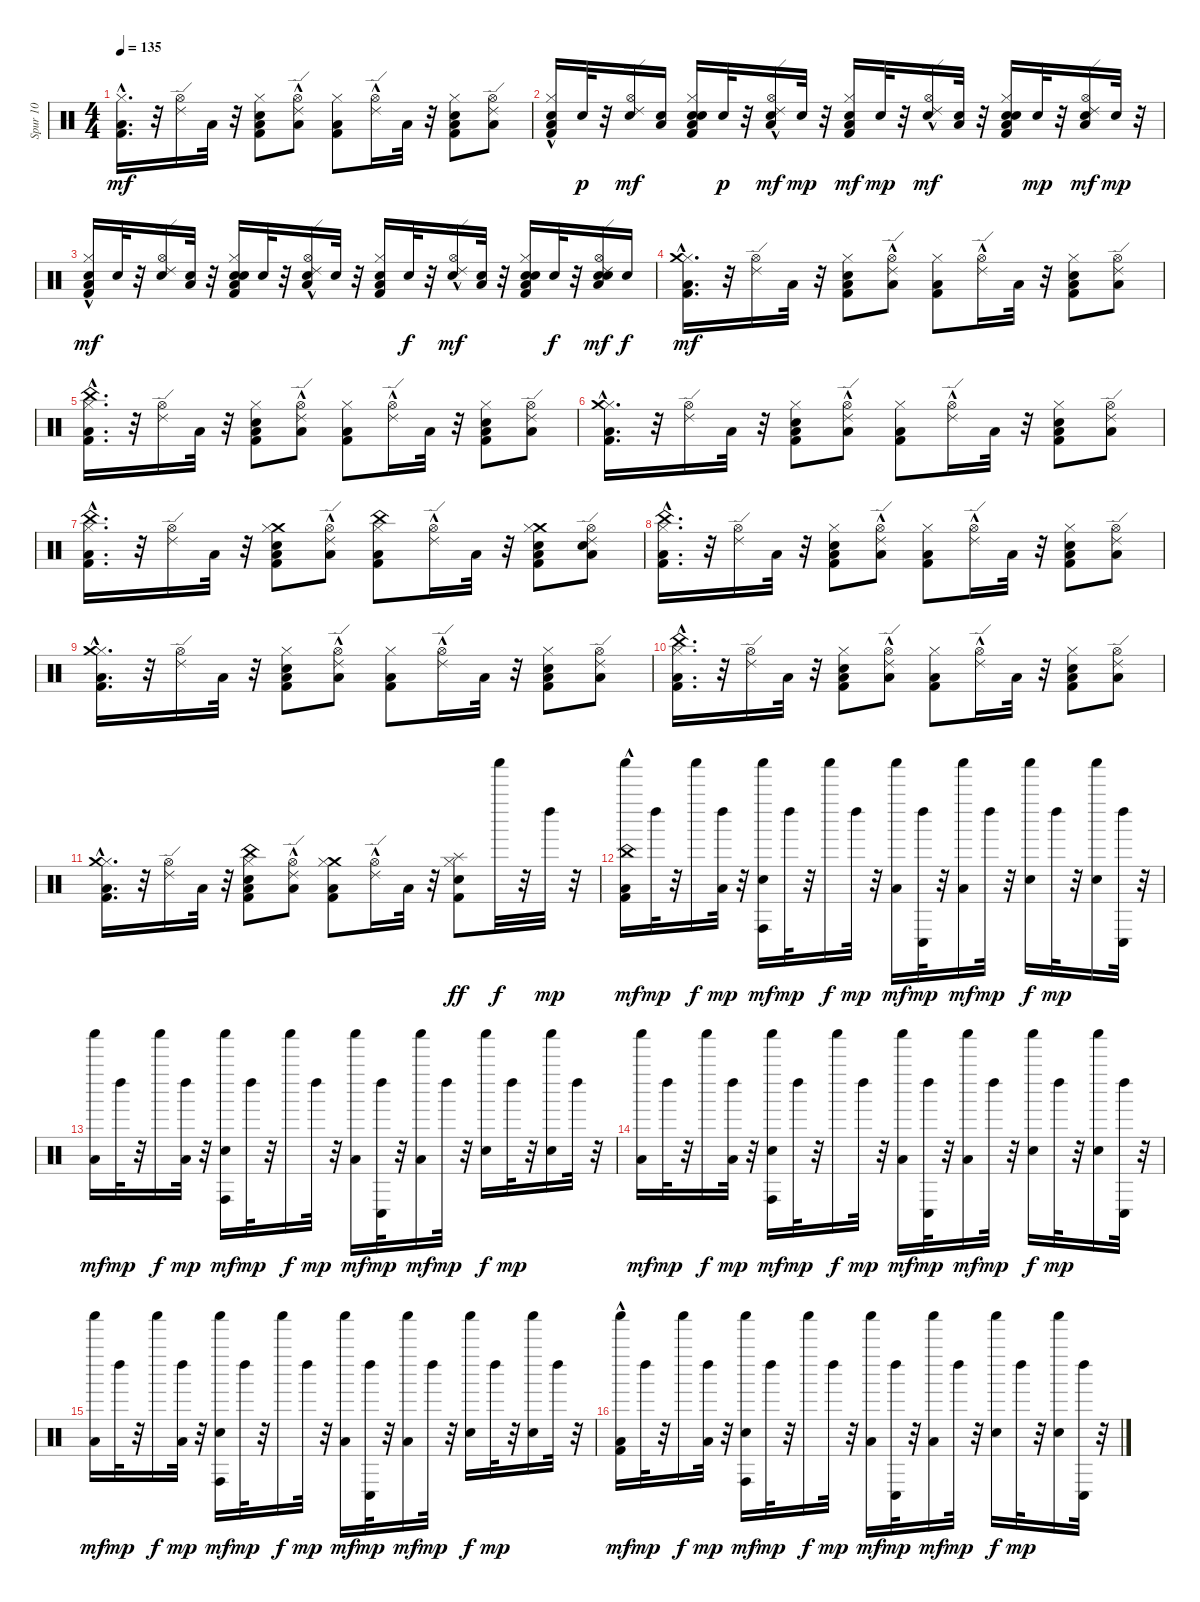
\track ("Spur 10" "Spur 10") {instrument percussion}
\staff {score}
\articulation defaults
\ts (4 4)
\tempo 135
\clef neutral
\ks c
("Kick (hit) 2" "Low Tom (hit)" "Hi-Hat (closed)"{hac}).16{d dy mf} r.32 ("Ride (edge) 2" "Hi-Hat (open)").16 "Low Tom (hit)".32 r.32 ("Kick (hit) 2" "Hand Clap (hit)" "Low Tom (hit)" "Hi-Hat (closed)").8 ("Low Tom (hit)" "Hi-Hat (open)" "Ride (edge) 2"{hac}).8 ("Kick (hit) 2" "Low Tom (hit)" "Hi-Hat (closed)").8 ("Hi-Hat (open)" "Ride (edge) 2"{hac}).16 "Low Tom (hit)".32 r.32 ("Kick (hit) 2" "Hand Clap (hit)" "Low Tom (hit)" "Hi-Hat (closed)").8 ("Low Tom (hit)" "Hi-Hat (open)" "Ride (edge) 2").8 |
("Snare (hit) 2" "Kick (hit) 2" "Low Tom (hit)" "Hi-Hat (closed)"{hac}).16 "Snare (hit) 2".32{dy p} r.32 ("Snare (hit) 2" "Ride (edge) 2" "Hi-Hat (open)").16{dy mf} ("Snare (hit) 2" "Low Tom (hit)").16 ("Snare (hit) 2" "Kick (hit) 2" "Hand Clap (hit)" "Low Tom (hit)" "Hi-Hat (closed)").16 "Snare (hit) 2".32{dy p} r.32 ("Snare (hit) 2" "Low Tom (hit)" "Hi-Hat (open)" "Ride (edge) 2"{hac}).16{dy mf} "Snare (hit) 2".32{dy mp} r.32 ("Snare (hit) 2" "Kick (hit) 2" "Low Tom (hit)" "Hi-Hat (closed)").16{dy mf} "Snare (hit) 2".32{dy mp} r.32 ("Snare (hit) 2" "Hi-Hat (open)" "Ride (edge) 2"{hac}).16{dy mf} ("Snare (hit) 2" "Low Tom (hit)").32 r.32 ("Snare (hit) 2" "Kick (hit) 2" "Hand Clap (hit)" "Low Tom (hit)" "Hi-Hat (closed)").16 "Snare (hit) 2".32{dy mp} r.32 ("Snare (hit) 2" "Low Tom (hit)" "Hi-Hat (open)" "Ride (edge) 2").16{dy mf} "Snare (hit) 2".32{dy mp} r.32 |
("Snare (hit) 2" "Kick (hit) 2" "Low Tom (hit)" "Hi-Hat (closed)"{hac}).16{dy mf} "Snare (hit) 2".32 r.32 ("Snare (hit) 2" "Ride (edge) 2" "Hi-Hat (open)").16 ("Snare (hit) 2" "Low Tom (hit)").32 r.32 ("Snare (hit) 2" "Kick (hit) 2" "Hand Clap (hit)" "Low Tom (hit)" "Hi-Hat (closed)").16 "Snare (hit) 2".32 r.32 ("Snare (hit) 2" "Low Tom (hit)" "Hi-Hat (open)" "Ride (edge) 2"{hac}).16 "Snare (hit) 2".32 r.32 ("Snare (hit) 2" "Kick (hit) 2" "Low Tom (hit)" "Hi-Hat (closed)").16 "Snare (hit) 2".32{dy f} r.32 ("Snare (hit) 2" "Hi-Hat (open)" "Ride (edge) 2"{hac}).16{dy mf} ("Snare (hit) 2" "Low Tom (hit)").32 r.32 ("Snare (hit) 2" "Kick (hit) 2" "Hand Clap (hit)" "Low Tom (hit)" "Hi-Hat (closed)").16 "Snare (hit) 2".32{dy f} r.32 ("Snare (hit) 2" "Hand Clap (hit)" "Low Tom (hit)" "Hi-Hat (open)" "Ride (edge) 2").16{dy mf} "Snare (hit) 2".16{dy f} |
("Kick (hit) 2" "Low Tom (hit)" "Hi-Hat (closed)"{hac} "Crash medium (hit)").16{d dy mf} r.32 ("Ride (edge) 2" "Hi-Hat (open)").16 "Low Tom (hit)".32 r.32 ("Kick (hit) 2" "Hand Clap (hit)" "Low Tom (hit)" "Hi-Hat (closed)").8 ("Low Tom (hit)" "Hi-Hat (open)" "Ride (edge) 2"{hac}).8 ("Kick (hit) 2" "Low Tom (hit)" "Hi-Hat (closed)").8 ("Hi-Hat (open)" "Ride (edge) 2"{hac}).16 "Low Tom (hit)".32 r.32 ("Kick (hit) 2" "Hand Clap (hit)" "Low Tom (hit)" "Hi-Hat (closed)").8 ("Low Tom (hit)" "Hi-Hat (open)" "Ride (edge) 2").8 |
("Kick (hit) 2" "Low Tom (hit)" "Hi-Hat (closed)"{hac} "China (hit)").16{d} r.32 ("Ride (edge) 2" "Hi-Hat (open)").16 "Low Tom (hit)".32 r.32 ("Kick (hit) 2" "Hand Clap (hit)" "Low Tom (hit)" "Hi-Hat (closed)").8 ("Low Tom (hit)" "Hi-Hat (open)" "Ride (edge) 2"{hac}).8 ("Kick (hit) 2" "Low Tom (hit)" "Hi-Hat (closed)").8 ("Hi-Hat (open)" "Ride (edge) 2"{hac}).16 "Low Tom (hit)".32 r.32 ("Kick (hit) 2" "Hand Clap (hit)" "Low Tom (hit)" "Hi-Hat (closed)").8 ("Low Tom (hit)" "Hi-Hat (open)" "Ride (edge) 2").8 |
("Kick (hit) 2" "Low Tom (hit)" "Hi-Hat (closed)"{hac} "Crash medium (hit)").16{d} r.32 ("Ride (edge) 2" "Hi-Hat (open)").16 "Low Tom (hit)".32 r.32 ("Kick (hit) 2" "Hand Clap (hit)" "Low Tom (hit)" "Hi-Hat (closed)").8 ("Low Tom (hit)" "Hi-Hat (open)" "Ride (edge) 2"{hac}).8 ("Kick (hit) 2" "Low Tom (hit)" "Hi-Hat (closed)").8 ("Hi-Hat (open)" "Ride (edge) 2"{hac}).16 "Low Tom (hit)".32 r.32 ("Kick (hit) 2" "Hand Clap (hit)" "Low Tom (hit)" "Hi-Hat (closed)").8 ("Low Tom (hit)" "Hi-Hat (open)" "Ride (edge) 2").8 |
("Kick (hit) 2" "Low Tom (hit)" "Hi-Hat (closed)"{hac} "China (hit)").16{d} r.32 ("Ride (edge) 2" "Hi-Hat (open)").16 "Low Tom (hit)".32 r.32 ("Kick (hit) 2" "Hand Clap (hit)" "Low Tom (hit)" "Crash medium (hit)" "Hi-Hat (closed)").8 ("Low Tom (hit)" "Hi-Hat (open)" "Ride (edge) 2"{hac}).8 ("Kick (hit) 2" "Low Tom (hit)" "China (hit)" "Hi-Hat (closed)").8 ("Hi-Hat (open)" "Ride (edge) 2"{hac}).16 "Low Tom (hit)".32 r.32 ("Kick (hit) 2" "Hand Clap (hit)" "Low Tom (hit)" "Crash medium (hit)" "Hi-Hat (closed)").8 ("Hand Clap (hit)" "Low Tom (hit)" "Hi-Hat (open)" "Ride (edge) 2").8 |
("Kick (hit) 2" "Low Tom (hit)" "Hi-Hat (closed)"{hac} "China (hit)").16{d} r.32 ("Ride (edge) 2" "Hi-Hat (open)").16 "Low Tom (hit)".32 r.32 ("Kick (hit) 2" "Hand Clap (hit)" "Low Tom (hit)" "Hi-Hat (closed)").8 ("Low Tom (hit)" "Hi-Hat (open)" "Ride (edge) 2"{hac}).8 ("Kick (hit) 2" "Low Tom (hit)" "Hi-Hat (closed)").8 ("Hi-Hat (open)" "Ride (edge) 2"{hac}).16 "Low Tom (hit)".32 r.32 ("Kick (hit) 2" "Hand Clap (hit)" "Low Tom (hit)" "Hi-Hat (closed)").8 ("Low Tom (hit)" "Hi-Hat (open)" "Ride (edge) 2").8 |
("Kick (hit) 2" "Low Tom (hit)" "Hi-Hat (closed)"{hac} "Crash medium (hit)").16{d} r.32 ("Ride (edge) 2" "Hi-Hat (open)").16 "Low Tom (hit)".32 r.32 ("Kick (hit) 2" "Hand Clap (hit)" "Low Tom (hit)" "Hi-Hat (closed)").8 ("Low Tom (hit)" "Hi-Hat (open)" "Ride (edge) 2"{hac}).8 ("Kick (hit) 2" "Low Tom (hit)" "Hi-Hat (closed)").8 ("Hi-Hat (open)" "Ride (edge) 2"{hac}).16 "Low Tom (hit)".32 r.32 ("Kick (hit) 2" "Hand Clap (hit)" "Low Tom (hit)" "Hi-Hat (closed)").8 ("Low Tom (hit)" "Hi-Hat (open)" "Ride (edge) 2").8 |
("Kick (hit) 2" "Low Tom (hit)" "Hi-Hat (closed)"{hac} "China (hit)").16{d} r.32 ("Ride (edge) 2" "Hi-Hat (open)").16 "Low Tom (hit)".32 r.32 ("Kick (hit) 2" "Hand Clap (hit)" "Low Tom (hit)" "Hi-Hat (closed)").8 ("Low Tom (hit)" "Hi-Hat (open)" "Ride (edge) 2"{hac}).8 ("Kick (hit) 2" "Low Tom (hit)" "Hi-Hat (closed)").8 ("Hi-Hat (open)" "Ride (edge) 2"{hac}).16 "Low Tom (hit)".32 r.32 ("Kick (hit) 2" "Hand Clap (hit)" "Low Tom (hit)" "Hi-Hat (closed)").8 ("Low Tom (hit)" "Hi-Hat (open)" "Ride (edge) 2").8 |
("Kick (hit) 2" "Low Tom (hit)" "Hi-Hat (closed)"{hac} "Crash medium (hit)").16{d} r.32 ("Ride (edge) 2" "Hi-Hat (open)").16 "Low Tom (hit)".32 r.32 ("Kick (hit) 2" "Hand Clap (hit)" "Low Tom (hit)" "China (hit)" "Hi-Hat (closed)").8 ("Low Tom (hit)" "Hi-Hat (open)" "Ride (edge) 2"{hac}).8 ("Kick (hit) 2" "Low Tom (hit)" "Crash medium (hit)" "Hi-Hat (closed)").8 ("Hi-Hat (open)" "Ride (edge) 2"{hac}).16 "Low Tom (hit)".32 r.32 ("Kick (hit) 2" "Hand Clap (hit)" "Splash (hit)" "Hi-Hat (closed)").8{dy ff} "Shaker (hit)".32{dy f} r.32 "Left Maraca (hit)".32{dy mp} r.32 |
("Kick (hit) 2"{hac} "Low Tom (hit)" "China (hit)" "Shaker (hit)").16{dy mf} "Left Maraca (hit)".32{dy mp} r.32 "Shaker (hit)".16{dy f} ("Low Tom (hit)" "Left Maraca (hit)").32{dy mp} r.32 ("Conga high (hit)" "Hand Clap (hit)" "Shaker (hit)").16{dy mf} "Left Maraca (hit)".32{dy mp} r.32 "Shaker (hit)".16{dy f} "Left Maraca (hit)".32{dy mp} r.32 ("Low Tom (hit)" "Shaker (hit)").16{dy mf} ("Conga low (hit)" "Left Maraca (hit)").32{dy mp} r.32 ("Low Tom (hit)" "Shaker (hit)").16{dy mf} "Left Maraca (hit)".32{dy mp} r.32 ("Hand Clap (hit)" "Shaker (hit)").16{dy f} "Left Maraca (hit)".32{dy mp} r.32 ("Hand Clap (hit)" "Shaker (hit)").16 ("Conga low (hit)" "Left Maraca (hit)").32 r.32 |
("Low Tom (hit)" "Shaker (hit)").16{dy mf} "Left Maraca (hit)".32{dy mp} r.32 "Shaker (hit)".16{dy f} ("Low Tom (hit)" "Left Maraca (hit)").32{dy mp} r.32 ("Conga high (hit)" "Hand Clap (hit)" "Shaker (hit)").16{dy mf} "Left Maraca (hit)".32{dy mp} r.32 "Shaker (hit)".16{dy f} "Left Maraca (hit)".32{dy mp} r.32 ("Low Tom (hit)" "Shaker (hit)").16{dy mf} ("Conga low (hit)" "Left Maraca (hit)").32{dy mp} r.32 ("Low Tom (hit)" "Shaker (hit)").16{dy mf} "Left Maraca (hit)".32{dy mp} r.32 ("Hand Clap (hit)" "Shaker (hit)").16{dy f} "Left Maraca (hit)".32{dy mp} r.32 ("Hand Clap (hit)" "Shaker (hit)").16 "Left Maraca (hit)".32 r.32 |
("Low Tom (hit)" "Shaker (hit)").16{dy mf} "Left Maraca (hit)".32{dy mp} r.32 "Shaker (hit)".16{dy f} ("Low Tom (hit)" "Left Maraca (hit)").32{dy mp} r.32 ("Conga high (hit)" "Hand Clap (hit)" "Shaker (hit)").16{dy mf} "Left Maraca (hit)".32{dy mp} r.32 "Shaker (hit)".16{dy f} "Left Maraca (hit)".32{dy mp} r.32 ("Low Tom (hit)" "Shaker (hit)").16{dy mf} ("Conga low (hit)" "Left Maraca (hit)").32{dy mp} r.32 ("Low Tom (hit)" "Shaker (hit)").16{dy mf} "Left Maraca (hit)".32{dy mp} r.32 ("Hand Clap (hit)" "Shaker (hit)").16{dy f} "Left Maraca (hit)".32{dy mp} r.32 ("Hand Clap (hit)" "Shaker (hit)").16 ("Conga low (hit)" "Left Maraca (hit)").32 r.32 |
("Low Tom (hit)" "Shaker (hit)").16{dy mf} "Left Maraca (hit)".32{dy mp} r.32 "Shaker (hit)".16{dy f} ("Low Tom (hit)" "Left Maraca (hit)").32{dy mp} r.32 ("Conga high (hit)" "Hand Clap (hit)" "Shaker (hit)").16{dy mf} "Left Maraca (hit)".32{dy mp} r.32 "Shaker (hit)".16{dy f} "Left Maraca (hit)".32{dy mp} r.32 ("Low Tom (hit)" "Shaker (hit)").16{dy mf} ("Conga low (hit)" "Left Maraca (hit)").32{dy mp} r.32 ("Low Tom (hit)" "Shaker (hit)").16{dy mf} "Left Maraca (hit)".32{dy mp} r.32 ("Hand Clap (hit)" "Shaker (hit)").16{dy f} "Left Maraca (hit)".32{dy mp} r.32 ("Hand Clap (hit)" "Shaker (hit)").16 "Left Maraca (hit)".32 r.32 |
("Kick (hit) 2"{hac} "Low Tom (hit)" "Shaker (hit)").16{dy mf} "Left Maraca (hit)".32{dy mp} r.32 "Shaker (hit)".16{dy f} ("Low Tom (hit)" "Left Maraca (hit)").32{dy mp} r.32 ("Conga high (hit)" "Hand Clap (hit)" "Shaker (hit)").16{dy mf} "Left Maraca (hit)".32{dy mp} r.32 "Shaker (hit)".16{dy f} "Left Maraca (hit)".32{dy mp} r.32 ("Low Tom (hit)" "Shaker (hit)").16{dy mf} ("Conga low (hit)" "Left Maraca (hit)").32{dy mp} r.32 ("Low Tom (hit)" "Shaker (hit)").16{dy mf} "Left Maraca (hit)".32{dy mp} r.32 ("Hand Clap (hit)" "Shaker (hit)").16{dy f} "Left Maraca (hit)".32{dy mp} r.32 ("Hand Clap (hit)" "Shaker (hit)").16 ("Conga low (hit)" "Left Maraca (hit)").32 r.32
